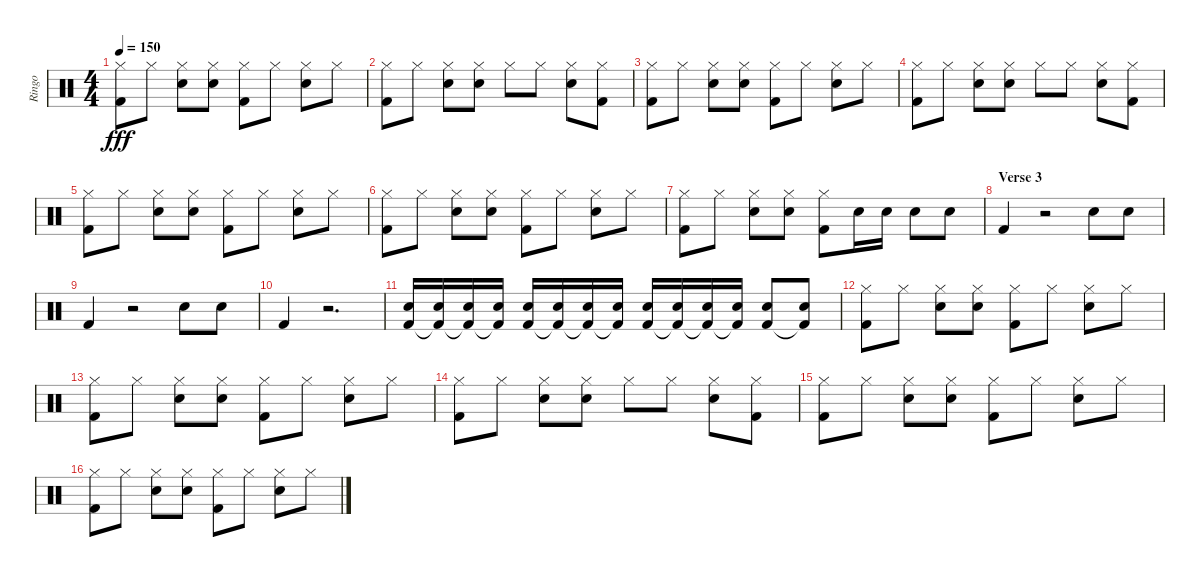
\track ("Ringo" "Ringo") {instrument percussion}
\staff {score}
\articulation defaults
\ts (4 4)
\tempo 150
\clef neutral
\ks c
("Hi-Hat (closed)" "Kick (hit) 2").8{dy fff} "Hi-Hat (closed)".8 ("Hi-Hat (closed)" "Snare (hit) 2").8 ("Hi-Hat (closed)" "Snare (hit) 2").8 ("Hi-Hat (closed)" "Kick (hit) 2").8 "Hi-Hat (closed)".8 ("Hi-Hat (closed)" "Snare (hit) 2").8 "Hi-Hat (closed)".8 |
("Hi-Hat (closed)" "Kick (hit) 2").8 "Hi-Hat (closed)".8 ("Hi-Hat (closed)" "Snare (hit) 2").8 ("Hi-Hat (closed)" "Snare (hit) 2").8 "Hi-Hat (closed)".8 "Hi-Hat (closed)".8 ("Hi-Hat (closed)" "Snare (hit) 2").8 ("Hi-Hat (closed)" "Kick (hit) 2").8 |
("Hi-Hat (closed)" "Kick (hit) 2").8 "Hi-Hat (closed)".8 ("Hi-Hat (closed)" "Snare (hit) 2").8 ("Hi-Hat (closed)" "Snare (hit) 2").8 ("Hi-Hat (closed)" "Kick (hit) 2").8 "Hi-Hat (closed)".8 ("Hi-Hat (closed)" "Snare (hit) 2").8 "Hi-Hat (closed)".8 |
("Hi-Hat (closed)" "Kick (hit) 2").8 "Hi-Hat (closed)".8 ("Hi-Hat (closed)" "Snare (hit) 2").8 ("Hi-Hat (closed)" "Snare (hit) 2").8 "Hi-Hat (closed)".8 "Hi-Hat (closed)".8 ("Hi-Hat (closed)" "Snare (hit) 2").8 ("Hi-Hat (closed)" "Kick (hit) 2").8 |
("Hi-Hat (closed)" "Kick (hit) 2").8 "Hi-Hat (closed)".8 ("Hi-Hat (closed)" "Snare (hit) 2").8 ("Hi-Hat (closed)" "Snare (hit) 2").8 ("Hi-Hat (closed)" "Kick (hit) 2").8 "Hi-Hat (closed)".8 ("Hi-Hat (closed)" "Snare (hit) 2").8 "Hi-Hat (closed)".8 |
("Hi-Hat (closed)" "Kick (hit) 2").8 "Hi-Hat (closed)".8 ("Hi-Hat (closed)" "Snare (hit) 2").8 ("Hi-Hat (closed)" "Snare (hit) 2").8 ("Hi-Hat (closed)" "Kick (hit) 2").8 "Hi-Hat (closed)".8 ("Hi-Hat (closed)" "Snare (hit) 2").8 "Hi-Hat (closed)".8 |
("Hi-Hat (closed)" "Kick (hit) 2").8 "Hi-Hat (closed)".8 ("Hi-Hat (closed)" "Snare (hit) 2").8 ("Hi-Hat (closed)" "Snare (hit) 2").8 ("Hi-Hat (closed)" "Kick (hit) 2").8 "Snare (hit) 2".16 "Snare (hit) 2".16 "Snare (hit) 2".8 "Snare (hit) 2".8 |
\section ("" "Verse 3")
"Kick (hit) 2".4 r.2 "Snare (hit) 2".8 "Snare (hit) 2".8 |
"Kick (hit) 2".4 r.2 "Snare (hit) 2".8 "Snare (hit) 2".8 |
"Kick (hit) 2".4 r.2{d} |
("Snare (hit) 2" "Kick (hit) 2").16 ("Snare (hit) 2" "Kick (hit) 2"{t}).16 ("Snare (hit) 2" "Kick (hit) 2"{t}).16 ("Snare (hit) 2" "Kick (hit) 2"{t}).16 ("Snare (hit) 2" "Kick (hit) 2").16 ("Snare (hit) 2" "Kick (hit) 2"{t}).16 ("Snare (hit) 2" "Kick (hit) 2"{t}).16 ("Snare (hit) 2" "Kick (hit) 2"{t}).16 ("Snare (hit) 2" "Kick (hit) 2").16 ("Snare (hit) 2" "Kick (hit) 2"{t}).16 ("Snare (hit) 2" "Kick (hit) 2"{t}).16 ("Snare (hit) 2" "Kick (hit) 2"{t}).16 ("Snare (hit) 2" "Kick (hit) 2").8 ("Snare (hit) 2" "Kick (hit) 2"{t}).8 |
("Hi-Hat (closed)" "Kick (hit) 2").8 "Hi-Hat (closed)".8 ("Hi-Hat (closed)" "Snare (hit) 2").8 ("Hi-Hat (closed)" "Snare (hit) 2").8 ("Hi-Hat (closed)" "Kick (hit) 2").8 "Hi-Hat (closed)".8 ("Hi-Hat (closed)" "Snare (hit) 2").8 "Hi-Hat (closed)".8 |
("Hi-Hat (closed)" "Kick (hit) 2").8 "Hi-Hat (closed)".8 ("Hi-Hat (closed)" "Snare (hit) 2").8 ("Hi-Hat (closed)" "Snare (hit) 2").8 ("Hi-Hat (closed)" "Kick (hit) 2").8 "Hi-Hat (closed)".8 ("Hi-Hat (closed)" "Snare (hit) 2").8 "Hi-Hat (closed)".8 |
("Hi-Hat (closed)" "Kick (hit) 2").8 "Hi-Hat (closed)".8 ("Hi-Hat (closed)" "Snare (hit) 2").8 ("Hi-Hat (closed)" "Snare (hit) 2").8 "Hi-Hat (closed)".8 "Hi-Hat (closed)".8 ("Hi-Hat (closed)" "Snare (hit) 2").8 ("Hi-Hat (closed)" "Kick (hit) 2").8 |
("Hi-Hat (closed)" "Kick (hit) 2").8 "Hi-Hat (closed)".8 ("Hi-Hat (closed)" "Snare (hit) 2").8 ("Hi-Hat (closed)" "Snare (hit) 2").8 ("Hi-Hat (closed)" "Kick (hit) 2").8 "Hi-Hat (closed)".8 ("Hi-Hat (closed)" "Snare (hit) 2").8 "Hi-Hat (closed)".8 |
("Hi-Hat (closed)" "Kick (hit) 2").8 "Hi-Hat (closed)".8 ("Hi-Hat (closed)" "Snare (hit) 2").8 ("Hi-Hat (closed)" "Snare (hit) 2").8 ("Hi-Hat (closed)" "Kick (hit) 2").8 "Hi-Hat (closed)".8 ("Hi-Hat (closed)" "Snare (hit) 2").8 "Hi-Hat (closed)".8
